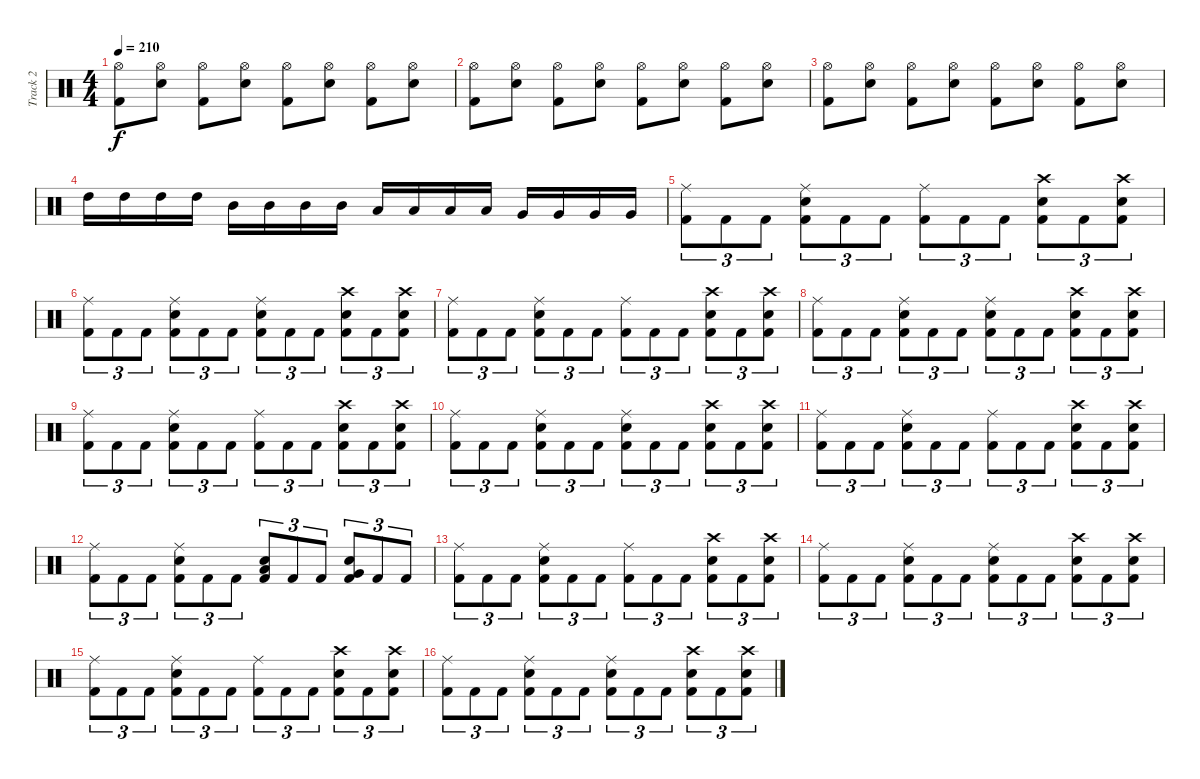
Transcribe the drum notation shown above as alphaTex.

\track ("Track 2" "Track 2") {instrument percussion}
\staff {score}
\articulation defaults
\ts (4 4)
\tempo 210
\clef neutral
\ks c
("Hi-Hat (open)" "Kick (hit) 2").8{dy f} ("Hi-Hat (open)" "Snare (hit) 2").8 ("Hi-Hat (open)" "Kick (hit) 2").8 ("Hi-Hat (open)" "Snare (hit) 2").8 ("Hi-Hat (open)" "Kick (hit) 2").8 ("Hi-Hat (open)" "Snare (hit) 2").8 ("Hi-Hat (open)" "Kick (hit) 2").8 ("Hi-Hat (open)" "Snare (hit) 2").8 |
("Hi-Hat (open)" "Kick (hit) 2").8 ("Hi-Hat (open)" "Snare (hit) 2").8 ("Hi-Hat (open)" "Kick (hit) 2").8 ("Hi-Hat (open)" "Snare (hit) 2").8 ("Hi-Hat (open)" "Kick (hit) 2").8 ("Hi-Hat (open)" "Snare (hit) 2").8 ("Hi-Hat (open)" "Kick (hit) 2").8 ("Hi-Hat (open)" "Snare (hit) 2").8 |
("Hi-Hat (open)" "Kick (hit) 2").8 ("Hi-Hat (open)" "Snare (hit) 2").8 ("Hi-Hat (open)" "Kick (hit) 2").8 ("Hi-Hat (open)" "Snare (hit) 2").8 ("Hi-Hat (open)" "Kick (hit) 2").8 ("Hi-Hat (open)" "Snare (hit) 2").8 ("Hi-Hat (open)" "Kick (hit) 2").8 ("Hi-Hat (open)" "Snare (hit) 2").8 |
"High Tom (hit)".16 "High Tom (hit)".16 "High Tom (hit)".16 "High Tom (hit)".16 "Mid Tom (hit)".16 "Mid Tom (hit)".16 "Mid Tom (hit)".16 "Mid Tom (hit)".16 "Low Tom (hit)".16 "Low Tom (hit)".16 "Low Tom (hit)".16 "Low Tom (hit)".16 "Very Low Tom (hit)".16 "Very Low Tom (hit)".16 "Very Low Tom (hit)".16 "Very Low Tom (hit)".16 |
("Ride (middle)" "Kick (hit) 2").8{tu (3 2)} "Kick (hit) 2".8{tu (3 2)} "Kick (hit) 2".8{tu (3 2)} ("Ride (middle)" "Snare (hit) 2" "Kick (hit) 2").8{tu (3 2)} "Kick (hit) 2".8{tu (3 2)} "Kick (hit) 2".8{tu (3 2)} ("Ride (middle)" "Kick (hit) 2").8{tu (3 2)} "Kick (hit) 2".8{tu (3 2)} "Kick (hit) 2".8{tu (3 2)} ("Crash high (hit)" "Snare (hit) 2" "Kick (hit) 2").8{tu (3 2)} "Kick (hit) 2".8{tu (3 2)} ("Crash high (hit)" "Snare (hit) 2" "Kick (hit) 2").8{tu (3 2)} |
("Ride (middle)" "Kick (hit) 2").8{tu (3 2)} "Kick (hit) 2".8{tu (3 2)} "Kick (hit) 2".8{tu (3 2)} ("Ride (middle)" "Snare (hit) 2" "Kick (hit) 2").8{tu (3 2)} "Kick (hit) 2".8{tu (3 2)} "Kick (hit) 2".8{tu (3 2)} ("Ride (middle)" "Snare (hit) 2" "Kick (hit) 2").8{tu (3 2)} "Kick (hit) 2".8{tu (3 2)} "Kick (hit) 2".8{tu (3 2)} ("Crash high (hit)" "Snare (hit) 2" "Kick (hit) 2").8{tu (3 2)} "Kick (hit) 2".8{tu (3 2)} ("Crash high (hit)" "Snare (hit) 2" "Kick (hit) 2").8{tu (3 2)} |
("Ride (middle)" "Kick (hit) 2").8{tu (3 2)} "Kick (hit) 2".8{tu (3 2)} "Kick (hit) 2".8{tu (3 2)} ("Ride (middle)" "Snare (hit) 2" "Kick (hit) 2").8{tu (3 2)} "Kick (hit) 2".8{tu (3 2)} "Kick (hit) 2".8{tu (3 2)} ("Ride (middle)" "Kick (hit) 2").8{tu (3 2)} "Kick (hit) 2".8{tu (3 2)} "Kick (hit) 2".8{tu (3 2)} ("Crash high (hit)" "Snare (hit) 2" "Kick (hit) 2").8{tu (3 2)} "Kick (hit) 2".8{tu (3 2)} ("Crash high (hit)" "Snare (hit) 2" "Kick (hit) 2").8{tu (3 2)} |
("Ride (middle)" "Kick (hit) 2").8{tu (3 2)} "Kick (hit) 2".8{tu (3 2)} "Kick (hit) 2".8{tu (3 2)} ("Ride (middle)" "Snare (hit) 2" "Kick (hit) 2").8{tu (3 2)} "Kick (hit) 2".8{tu (3 2)} "Kick (hit) 2".8{tu (3 2)} ("Ride (middle)" "Snare (hit) 2" "Kick (hit) 2").8{tu (3 2)} "Kick (hit) 2".8{tu (3 2)} "Kick (hit) 2".8{tu (3 2)} ("Crash high (hit)" "Snare (hit) 2" "Kick (hit) 2").8{tu (3 2)} "Kick (hit) 2".8{tu (3 2)} ("Crash high (hit)" "Snare (hit) 2" "Kick (hit) 2").8{tu (3 2)} |
("Ride (middle)" "Kick (hit) 2").8{tu (3 2)} "Kick (hit) 2".8{tu (3 2)} "Kick (hit) 2".8{tu (3 2)} ("Ride (middle)" "Snare (hit) 2" "Kick (hit) 2").8{tu (3 2)} "Kick (hit) 2".8{tu (3 2)} "Kick (hit) 2".8{tu (3 2)} ("Ride (middle)" "Kick (hit) 2").8{tu (3 2)} "Kick (hit) 2".8{tu (3 2)} "Kick (hit) 2".8{tu (3 2)} ("Crash high (hit)" "Snare (hit) 2" "Kick (hit) 2").8{tu (3 2)} "Kick (hit) 2".8{tu (3 2)} ("Crash high (hit)" "Snare (hit) 2" "Kick (hit) 2").8{tu (3 2)} |
("Ride (middle)" "Kick (hit) 2").8{tu (3 2)} "Kick (hit) 2".8{tu (3 2)} "Kick (hit) 2".8{tu (3 2)} ("Ride (middle)" "Snare (hit) 2" "Kick (hit) 2").8{tu (3 2)} "Kick (hit) 2".8{tu (3 2)} "Kick (hit) 2".8{tu (3 2)} ("Ride (middle)" "Snare (hit) 2" "Kick (hit) 2").8{tu (3 2)} "Kick (hit) 2".8{tu (3 2)} "Kick (hit) 2".8{tu (3 2)} ("Crash high (hit)" "Snare (hit) 2" "Kick (hit) 2").8{tu (3 2)} "Kick (hit) 2".8{tu (3 2)} ("Crash high (hit)" "Snare (hit) 2" "Kick (hit) 2").8{tu (3 2)} |
("Ride (middle)" "Kick (hit) 2").8{tu (3 2)} "Kick (hit) 2".8{tu (3 2)} "Kick (hit) 2".8{tu (3 2)} ("Ride (middle)" "Snare (hit) 2" "Kick (hit) 2").8{tu (3 2)} "Kick (hit) 2".8{tu (3 2)} "Kick (hit) 2".8{tu (3 2)} ("Ride (middle)" "Kick (hit) 2").8{tu (3 2)} "Kick (hit) 2".8{tu (3 2)} "Kick (hit) 2".8{tu (3 2)} ("Crash high (hit)" "Snare (hit) 2" "Kick (hit) 2").8{tu (3 2)} "Kick (hit) 2".8{tu (3 2)} ("Crash high (hit)" "Snare (hit) 2" "Kick (hit) 2").8{tu (3 2)} |
("Ride (middle)" "Kick (hit) 2").8{tu (3 2)} "Kick (hit) 2".8{tu (3 2)} "Kick (hit) 2".8{tu (3 2)} ("Ride (middle)" "Snare (hit) 2" "Kick (hit) 2").8{tu (3 2)} "Kick (hit) 2".8{tu (3 2)} "Kick (hit) 2".8{tu (3 2)} ("Low Tom (hit)" "Snare (hit) 2" "Kick (hit) 2").8{tu (3 2)} "Kick (hit) 2".8{tu (3 2)} "Kick (hit) 2".8{tu (3 2)} ("Very Low Tom (hit)" "Snare (hit) 2" "Kick (hit) 2").8{tu (3 2)} "Kick (hit) 2".8{tu (3 2)} "Kick (hit) 2".8{tu (3 2)} |
("Ride (middle)" "Kick (hit) 2").8{tu (3 2)} "Kick (hit) 2".8{tu (3 2)} "Kick (hit) 2".8{tu (3 2)} ("Ride (middle)" "Snare (hit) 2" "Kick (hit) 2").8{tu (3 2)} "Kick (hit) 2".8{tu (3 2)} "Kick (hit) 2".8{tu (3 2)} ("Ride (middle)" "Kick (hit) 2").8{tu (3 2)} "Kick (hit) 2".8{tu (3 2)} "Kick (hit) 2".8{tu (3 2)} ("Crash high (hit)" "Snare (hit) 2" "Kick (hit) 2").8{tu (3 2)} "Kick (hit) 2".8{tu (3 2)} ("Crash high (hit)" "Snare (hit) 2" "Kick (hit) 2").8{tu (3 2)} |
("Ride (middle)" "Kick (hit) 2").8{tu (3 2)} "Kick (hit) 2".8{tu (3 2)} "Kick (hit) 2".8{tu (3 2)} ("Ride (middle)" "Snare (hit) 2" "Kick (hit) 2").8{tu (3 2)} "Kick (hit) 2".8{tu (3 2)} "Kick (hit) 2".8{tu (3 2)} ("Ride (middle)" "Snare (hit) 2" "Kick (hit) 2").8{tu (3 2)} "Kick (hit) 2".8{tu (3 2)} "Kick (hit) 2".8{tu (3 2)} ("Crash high (hit)" "Snare (hit) 2" "Kick (hit) 2").8{tu (3 2)} "Kick (hit) 2".8{tu (3 2)} ("Crash high (hit)" "Snare (hit) 2" "Kick (hit) 2").8{tu (3 2)} |
("Ride (middle)" "Kick (hit) 2").8{tu (3 2)} "Kick (hit) 2".8{tu (3 2)} "Kick (hit) 2".8{tu (3 2)} ("Ride (middle)" "Snare (hit) 2" "Kick (hit) 2").8{tu (3 2)} "Kick (hit) 2".8{tu (3 2)} "Kick (hit) 2".8{tu (3 2)} ("Ride (middle)" "Kick (hit) 2").8{tu (3 2)} "Kick (hit) 2".8{tu (3 2)} "Kick (hit) 2".8{tu (3 2)} ("Crash high (hit)" "Snare (hit) 2" "Kick (hit) 2").8{tu (3 2)} "Kick (hit) 2".8{tu (3 2)} ("Crash high (hit)" "Snare (hit) 2" "Kick (hit) 2").8{tu (3 2)} |
("Ride (middle)" "Kick (hit) 2").8{tu (3 2)} "Kick (hit) 2".8{tu (3 2)} "Kick (hit) 2".8{tu (3 2)} ("Ride (middle)" "Snare (hit) 2" "Kick (hit) 2").8{tu (3 2)} "Kick (hit) 2".8{tu (3 2)} "Kick (hit) 2".8{tu (3 2)} ("Ride (middle)" "Snare (hit) 2" "Kick (hit) 2").8{tu (3 2)} "Kick (hit) 2".8{tu (3 2)} "Kick (hit) 2".8{tu (3 2)} ("Crash high (hit)" "Snare (hit) 2" "Kick (hit) 2").8{tu (3 2)} "Kick (hit) 2".8{tu (3 2)} ("Crash high (hit)" "Snare (hit) 2" "Kick (hit) 2").8{tu (3 2)}
